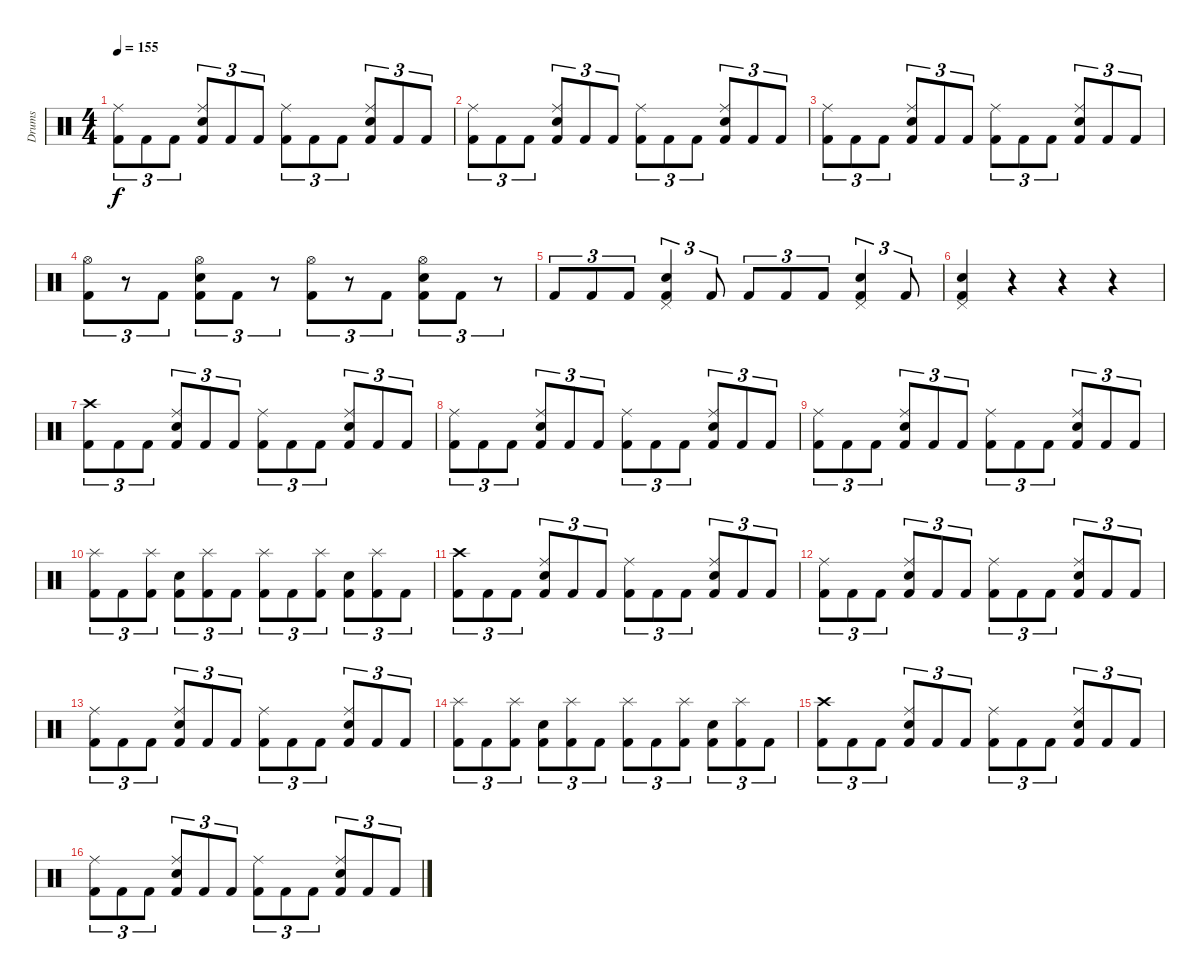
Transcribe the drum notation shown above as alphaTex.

\track ("Drums" "Drums") {instrument percussion}
\staff {score}
\articulation defaults
\ts (4 4)
\tempo 155
\clef neutral
\ks c
("Kick (hit) 2" "Ride (middle)").8{tu (3 2) dy f} "Kick (hit) 2".8{tu (3 2)} "Kick (hit) 2".8{tu (3 2)} ("Kick (hit) 2" "Electric Snare (hit)" "Ride (middle)").8{tu (3 2)} "Kick (hit) 2".8{tu (3 2)} "Kick (hit) 2".8{tu (3 2)} ("Kick (hit) 2" "Ride (middle)").8{tu (3 2)} "Kick (hit) 2".8{tu (3 2)} "Kick (hit) 2".8{tu (3 2)} ("Kick (hit) 2" "Electric Snare (hit)" "Ride (middle)").8{tu (3 2)} "Kick (hit) 2".8{tu (3 2)} "Kick (hit) 2".8{tu (3 2)} |
("Kick (hit) 2" "Ride (middle)").8{tu (3 2)} "Kick (hit) 2".8{tu (3 2)} "Kick (hit) 2".8{tu (3 2)} ("Kick (hit) 2" "Electric Snare (hit)" "Ride (middle)").8{tu (3 2)} "Kick (hit) 2".8{tu (3 2)} "Kick (hit) 2".8{tu (3 2)} ("Kick (hit) 2" "Ride (middle)").8{tu (3 2)} "Kick (hit) 2".8{tu (3 2)} "Kick (hit) 2".8{tu (3 2)} ("Kick (hit) 2" "Electric Snare (hit)" "Ride (middle)").8{tu (3 2)} "Kick (hit) 2".8{tu (3 2)} "Kick (hit) 2".8{tu (3 2)} |
("Kick (hit) 2" "Ride (middle)").8{tu (3 2)} "Kick (hit) 2".8{tu (3 2)} "Kick (hit) 2".8{tu (3 2)} ("Kick (hit) 2" "Electric Snare (hit)" "Ride (middle)").8{tu (3 2)} "Kick (hit) 2".8{tu (3 2)} "Kick (hit) 2".8{tu (3 2)} ("Kick (hit) 2" "Ride (middle)").8{tu (3 2)} "Kick (hit) 2".8{tu (3 2)} "Kick (hit) 2".8{tu (3 2)} ("Kick (hit) 2" "Electric Snare (hit)" "Ride (middle)").8{tu (3 2)} "Kick (hit) 2".8{tu (3 2)} "Kick (hit) 2".8{tu (3 2)} |
("Kick (hit) 2" "Hi-Hat (open)").8{tu (3 2)} r.8{tu (3 2)} "Kick (hit) 2".8{tu (3 2)} ("Kick (hit) 2" "Electric Snare (hit)" "Hi-Hat (open)").8{tu (3 2)} "Kick (hit) 2".8{tu (3 2)} r.8{tu (3 2)} ("Kick (hit) 2" "Hi-Hat (open)").8{tu (3 2)} r.8{tu (3 2)} "Kick (hit) 2".8{tu (3 2)} ("Kick (hit) 2" "Electric Snare (hit)" "Hi-Hat (open)").8{tu (3 2)} "Kick (hit) 2".8{tu (3 2)} r.8{tu (3 2)} |
"Kick (hit) 2".8{tu (3 2)} "Kick (hit) 2".8{tu (3 2)} "Kick (hit) 2".8{tu (3 2)} ("Kick (hit) 2" "Electric Snare (hit)" "Pedal Hi-Hat (hit)").4{tu (3 2)} "Kick (hit) 2".8{tu (3 2)} "Kick (hit) 2".8{tu (3 2)} "Kick (hit) 2".8{tu (3 2)} "Kick (hit) 2".8{tu (3 2)} ("Kick (hit) 2" "Electric Snare (hit)" "Pedal Hi-Hat (hit)").4{tu (3 2)} "Kick (hit) 2".8{tu (3 2)} |
("Kick (hit) 2" "Electric Snare (hit)" "Pedal Hi-Hat (hit)").4 r.4 r.4 r.4 |
("Kick (hit) 2" "Crash high (hit)").8{tu (3 2)} "Kick (hit) 2".8{tu (3 2)} "Kick (hit) 2".8{tu (3 2)} ("Kick (hit) 2" "Electric Snare (hit)" "Ride (middle)").8{tu (3 2)} "Kick (hit) 2".8{tu (3 2)} "Kick (hit) 2".8{tu (3 2)} ("Kick (hit) 2" "Ride (middle)").8{tu (3 2)} "Kick (hit) 2".8{tu (3 2)} "Kick (hit) 2".8{tu (3 2)} ("Kick (hit) 2" "Electric Snare (hit)" "Ride (middle)").8{tu (3 2)} "Kick (hit) 2".8{tu (3 2)} "Kick (hit) 2".8{tu (3 2)} |
("Kick (hit) 2" "Ride (middle)").8{tu (3 2)} "Kick (hit) 2".8{tu (3 2)} "Kick (hit) 2".8{tu (3 2)} ("Kick (hit) 2" "Electric Snare (hit)" "Ride (middle)").8{tu (3 2)} "Kick (hit) 2".8{tu (3 2)} "Kick (hit) 2".8{tu (3 2)} ("Kick (hit) 2" "Ride (middle)").8{tu (3 2)} "Kick (hit) 2".8{tu (3 2)} "Kick (hit) 2".8{tu (3 2)} ("Kick (hit) 2" "Electric Snare (hit)" "Ride (middle)").8{tu (3 2)} "Kick (hit) 2".8{tu (3 2)} "Kick (hit) 2".8{tu (3 2)} |
("Kick (hit) 2" "Ride (middle)").8{tu (3 2)} "Kick (hit) 2".8{tu (3 2)} "Kick (hit) 2".8{tu (3 2)} ("Kick (hit) 2" "Electric Snare (hit)" "Ride (middle)").8{tu (3 2)} "Kick (hit) 2".8{tu (3 2)} "Kick (hit) 2".8{tu (3 2)} ("Kick (hit) 2" "Ride (middle)").8{tu (3 2)} "Kick (hit) 2".8{tu (3 2)} "Kick (hit) 2".8{tu (3 2)} ("Kick (hit) 2" "Electric Snare (hit)" "Ride (middle)").8{tu (3 2)} "Kick (hit) 2".8{tu (3 2)} "Kick (hit) 2".8{tu (3 2)} |
("Kick (hit) 2" "Splash (hit)").8{tu (3 2)} "Kick (hit) 2".8{tu (3 2)} ("Kick (hit) 2" "Splash (hit)").8{tu (3 2)} ("Kick (hit) 2" "Electric Snare (hit)").8{tu (3 2)} ("Kick (hit) 2" "Splash (hit)").8{tu (3 2)} "Kick (hit) 2".8{tu (3 2)} ("Kick (hit) 2" "Splash (hit)").8{tu (3 2)} "Kick (hit) 2".8{tu (3 2)} ("Kick (hit) 2" "Splash (hit)").8{tu (3 2)} ("Kick (hit) 2" "Electric Snare (hit)").8{tu (3 2)} ("Kick (hit) 2" "Splash (hit)").8{tu (3 2)} "Kick (hit) 2".8{tu (3 2)} |
("Kick (hit) 2" "Crash high (hit)").8{tu (3 2)} "Kick (hit) 2".8{tu (3 2)} "Kick (hit) 2".8{tu (3 2)} ("Kick (hit) 2" "Electric Snare (hit)" "Ride (middle)").8{tu (3 2)} "Kick (hit) 2".8{tu (3 2)} "Kick (hit) 2".8{tu (3 2)} ("Kick (hit) 2" "Ride (middle)").8{tu (3 2)} "Kick (hit) 2".8{tu (3 2)} "Kick (hit) 2".8{tu (3 2)} ("Kick (hit) 2" "Electric Snare (hit)" "Ride (middle)").8{tu (3 2)} "Kick (hit) 2".8{tu (3 2)} "Kick (hit) 2".8{tu (3 2)} |
("Kick (hit) 2" "Ride (middle)").8{tu (3 2)} "Kick (hit) 2".8{tu (3 2)} "Kick (hit) 2".8{tu (3 2)} ("Kick (hit) 2" "Electric Snare (hit)" "Ride (middle)").8{tu (3 2)} "Kick (hit) 2".8{tu (3 2)} "Kick (hit) 2".8{tu (3 2)} ("Kick (hit) 2" "Ride (middle)").8{tu (3 2)} "Kick (hit) 2".8{tu (3 2)} "Kick (hit) 2".8{tu (3 2)} ("Kick (hit) 2" "Electric Snare (hit)" "Ride (middle)").8{tu (3 2)} "Kick (hit) 2".8{tu (3 2)} "Kick (hit) 2".8{tu (3 2)} |
("Kick (hit) 2" "Ride (middle)").8{tu (3 2)} "Kick (hit) 2".8{tu (3 2)} "Kick (hit) 2".8{tu (3 2)} ("Kick (hit) 2" "Electric Snare (hit)" "Ride (middle)").8{tu (3 2)} "Kick (hit) 2".8{tu (3 2)} "Kick (hit) 2".8{tu (3 2)} ("Kick (hit) 2" "Ride (middle)").8{tu (3 2)} "Kick (hit) 2".8{tu (3 2)} "Kick (hit) 2".8{tu (3 2)} ("Kick (hit) 2" "Electric Snare (hit)" "Ride (middle)").8{tu (3 2)} "Kick (hit) 2".8{tu (3 2)} "Kick (hit) 2".8{tu (3 2)} |
("Kick (hit) 2" "Splash (hit)").8{tu (3 2)} "Kick (hit) 2".8{tu (3 2)} ("Kick (hit) 2" "Splash (hit)").8{tu (3 2)} ("Kick (hit) 2" "Electric Snare (hit)").8{tu (3 2)} ("Kick (hit) 2" "Splash (hit)").8{tu (3 2)} "Kick (hit) 2".8{tu (3 2)} ("Kick (hit) 2" "Splash (hit)").8{tu (3 2)} "Kick (hit) 2".8{tu (3 2)} ("Kick (hit) 2" "Splash (hit)").8{tu (3 2)} ("Kick (hit) 2" "Electric Snare (hit)").8{tu (3 2)} ("Kick (hit) 2" "Splash (hit)").8{tu (3 2)} "Kick (hit) 2".8{tu (3 2)} |
("Kick (hit) 2" "Crash high (hit)").8{tu (3 2)} "Kick (hit) 2".8{tu (3 2)} "Kick (hit) 2".8{tu (3 2)} ("Kick (hit) 2" "Electric Snare (hit)" "Ride (middle)").8{tu (3 2)} "Kick (hit) 2".8{tu (3 2)} "Kick (hit) 2".8{tu (3 2)} ("Kick (hit) 2" "Ride (middle)").8{tu (3 2)} "Kick (hit) 2".8{tu (3 2)} "Kick (hit) 2".8{tu (3 2)} ("Kick (hit) 2" "Electric Snare (hit)" "Ride (middle)").8{tu (3 2)} "Kick (hit) 2".8{tu (3 2)} "Kick (hit) 2".8{tu (3 2)} |
("Kick (hit) 2" "Ride (middle)").8{tu (3 2)} "Kick (hit) 2".8{tu (3 2)} "Kick (hit) 2".8{tu (3 2)} ("Kick (hit) 2" "Electric Snare (hit)" "Ride (middle)").8{tu (3 2)} "Kick (hit) 2".8{tu (3 2)} "Kick (hit) 2".8{tu (3 2)} ("Kick (hit) 2" "Ride (middle)").8{tu (3 2)} "Kick (hit) 2".8{tu (3 2)} "Kick (hit) 2".8{tu (3 2)} ("Kick (hit) 2" "Electric Snare (hit)" "Ride (middle)").8{tu (3 2)} "Kick (hit) 2".8{tu (3 2)} "Kick (hit) 2".8{tu (3 2)}
